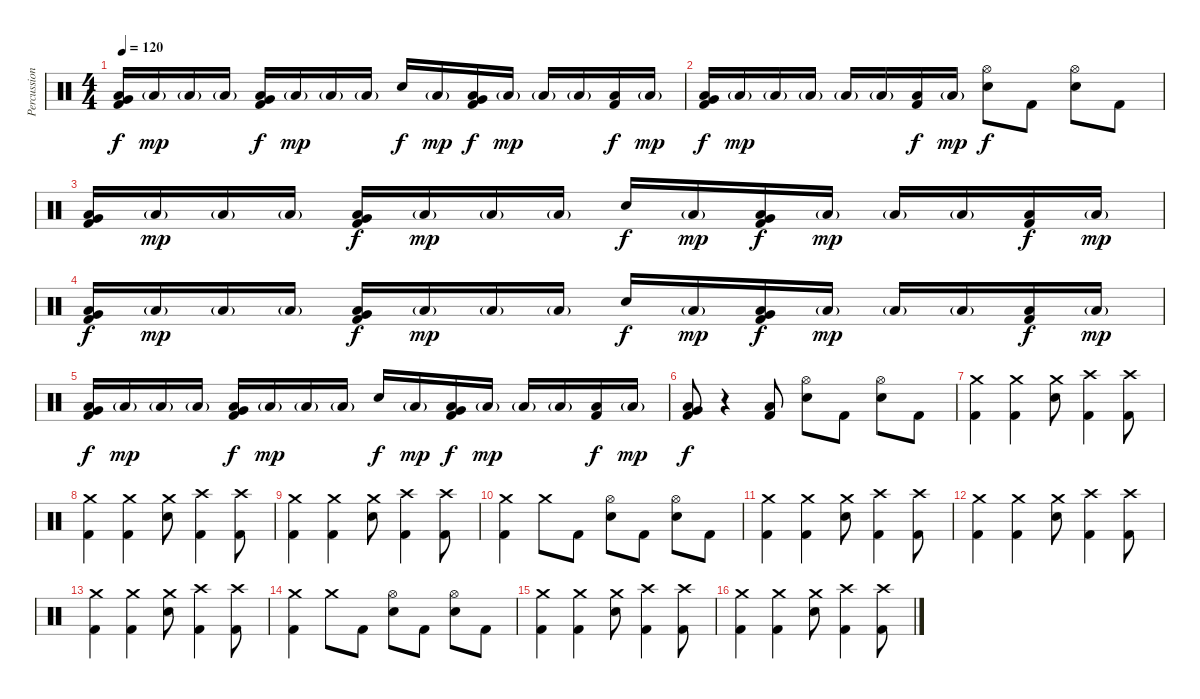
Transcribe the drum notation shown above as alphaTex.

\track ("Percussion" "Percussion") {instrument percussion}
\staff {score}
\articulation defaults
\ts (4 4)
\tempo 120
\clef neutral
\ks c
("Very Low Tom (hit)" "Low Floor Tom (hit)" "Kick (hit) 2").16{dy f} "Low Floor Tom (hit)"{g}.16{dy mp} "Low Floor Tom (hit)"{g}.16 "Low Floor Tom (hit)"{g}.16 ("Very Low Tom (hit)" "Low Floor Tom (hit)" "Kick (hit) 2").16{dy f} "Low Floor Tom (hit)"{g}.16{dy mp} "Low Floor Tom (hit)"{g}.16 "Low Floor Tom (hit)"{g}.16 "Electric Snare (hit)".16{dy f} "Low Floor Tom (hit)"{g}.16{dy mp} ("Very Low Tom (hit)" "Low Floor Tom (hit)" "Kick (hit) 2").16{dy f} "Low Floor Tom (hit)"{g}.16{dy mp} "Low Floor Tom (hit)"{g}.16 "Low Floor Tom (hit)"{g}.16 ("Low Floor Tom (hit)" "Kick (hit) 2").16{dy f} "Low Floor Tom (hit)"{g}.16{dy mp} |
("Very Low Tom (hit)" "Low Floor Tom (hit)" "Kick (hit) 2").16{dy f} "Low Floor Tom (hit)"{g}.16{dy mp} "Low Floor Tom (hit)"{g}.16 "Low Floor Tom (hit)"{g}.16 "Low Floor Tom (hit)"{g}.16 "Low Floor Tom (hit)"{g}.16 ("Low Floor Tom (hit)" "Kick (hit) 2").16{dy f} "Low Floor Tom (hit)"{g}.16{dy mp} ("Hi-Hat (open)" "Electric Snare (hit)").8{dy f} "Kick (hit) 2".8 ("Hi-Hat (open)" "Electric Snare (hit)").8 "Kick (hit) 2".8 |
("Very Low Tom (hit)" "Low Floor Tom (hit)" "Kick (hit) 2").16 "Low Floor Tom (hit)"{g}.16{dy mp} "Low Floor Tom (hit)"{g}.16 "Low Floor Tom (hit)"{g}.16 ("Very Low Tom (hit)" "Low Floor Tom (hit)" "Kick (hit) 2").16{dy f} "Low Floor Tom (hit)"{g}.16{dy mp} "Low Floor Tom (hit)"{g}.16 "Low Floor Tom (hit)"{g}.16 "Electric Snare (hit)".16{dy f} "Low Floor Tom (hit)"{g}.16{dy mp} ("Very Low Tom (hit)" "Low Floor Tom (hit)" "Kick (hit) 2").16{dy f} "Low Floor Tom (hit)"{g}.16{dy mp} "Low Floor Tom (hit)"{g}.16 "Low Floor Tom (hit)"{g}.16 ("Low Floor Tom (hit)" "Kick (hit) 2").16{dy f} "Low Floor Tom (hit)"{g}.16{dy mp} |
("Very Low Tom (hit)" "Low Floor Tom (hit)" "Kick (hit) 2").16{dy f} "Low Floor Tom (hit)"{g}.16{dy mp} "Low Floor Tom (hit)"{g}.16 "Low Floor Tom (hit)"{g}.16 ("Very Low Tom (hit)" "Low Floor Tom (hit)" "Kick (hit) 2").16{dy f} "Low Floor Tom (hit)"{g}.16{dy mp} "Low Floor Tom (hit)"{g}.16 "Low Floor Tom (hit)"{g}.16 "Electric Snare (hit)".16{dy f} "Low Floor Tom (hit)"{g}.16{dy mp} ("Very Low Tom (hit)" "Low Floor Tom (hit)" "Kick (hit) 2").16{dy f} "Low Floor Tom (hit)"{g}.16{dy mp} "Low Floor Tom (hit)"{g}.16 "Low Floor Tom (hit)"{g}.16 ("Low Floor Tom (hit)" "Kick (hit) 2").16{dy f} "Low Floor Tom (hit)"{g}.16{dy mp} |
("Very Low Tom (hit)" "Low Floor Tom (hit)" "Kick (hit) 2").16{dy f} "Low Floor Tom (hit)"{g}.16{dy mp} "Low Floor Tom (hit)"{g}.16 "Low Floor Tom (hit)"{g}.16 ("Very Low Tom (hit)" "Low Floor Tom (hit)" "Kick (hit) 2").16{dy f} "Low Floor Tom (hit)"{g}.16{dy mp} "Low Floor Tom (hit)"{g}.16 "Low Floor Tom (hit)"{g}.16 "Electric Snare (hit)".16{dy f} "Low Floor Tom (hit)"{g}.16{dy mp} ("Very Low Tom (hit)" "Low Floor Tom (hit)" "Kick (hit) 2").16{dy f} "Low Floor Tom (hit)"{g}.16{dy mp} "Low Floor Tom (hit)"{g}.16 "Low Floor Tom (hit)"{g}.16 ("Low Floor Tom (hit)" "Kick (hit) 2").16{dy f} "Low Floor Tom (hit)"{g}.16{dy mp} |
("Very Low Tom (hit)" "Low Floor Tom (hit)" "Kick (hit) 2").8{dy f} r.4 ("Low Floor Tom (hit)" "Kick (hit) 2").8 ("Hi-Hat (open)" "Electric Snare (hit)").8 "Kick (hit) 2".8 ("Hi-Hat (open)" "Electric Snare (hit)").8 "Kick (hit) 2".8 |
("Crash medium (hit)" "Kick (hit) 2").4 ("Crash medium (hit)" "Kick (hit) 2").4 ("Crash medium (hit)" "Electric Snare (hit)").8 ("Crash high (hit)" "Kick (hit) 2").4 ("Crash high (hit)" "Kick (hit) 2").8 |
("Crash medium (hit)" "Kick (hit) 2").4 ("Crash medium (hit)" "Kick (hit) 2").4 ("Crash medium (hit)" "Electric Snare (hit)").8 ("Crash high (hit)" "Kick (hit) 2").4 ("Crash high (hit)" "Kick (hit) 2").8 |
("Crash medium (hit)" "Kick (hit) 2").4 ("Crash medium (hit)" "Kick (hit) 2").4 ("Crash medium (hit)" "Electric Snare (hit)").8 ("Crash high (hit)" "Kick (hit) 2").4 ("Crash high (hit)" "Kick (hit) 2").8 |
("Crash medium (hit)" "Kick (hit) 2").4 "Crash medium (hit)".8 "Kick (hit) 2".8 ("Hi-Hat (open)" "Electric Snare (hit)").8 "Kick (hit) 2".8 ("Hi-Hat (open)" "Electric Snare (hit)").8 "Kick (hit) 2".8 |
("Crash medium (hit)" "Kick (hit) 2").4 ("Crash medium (hit)" "Kick (hit) 2").4 ("Crash medium (hit)" "Electric Snare (hit)").8 ("Crash high (hit)" "Kick (hit) 2").4 ("Crash high (hit)" "Kick (hit) 2").8 |
("Crash medium (hit)" "Kick (hit) 2").4 ("Crash medium (hit)" "Kick (hit) 2").4 ("Crash medium (hit)" "Electric Snare (hit)").8 ("Crash high (hit)" "Kick (hit) 2").4 ("Crash high (hit)" "Kick (hit) 2").8 |
("Crash medium (hit)" "Kick (hit) 2").4 ("Crash medium (hit)" "Kick (hit) 2").4 ("Crash medium (hit)" "Electric Snare (hit)").8 ("Crash high (hit)" "Kick (hit) 2").4 ("Crash high (hit)" "Kick (hit) 2").8 |
("Crash medium (hit)" "Kick (hit) 2").4 "Crash medium (hit)".8 "Kick (hit) 2".8 ("Hi-Hat (open)" "Electric Snare (hit)").8 "Kick (hit) 2".8 ("Hi-Hat (open)" "Electric Snare (hit)").8 "Kick (hit) 2".8 |
("Crash medium (hit)" "Kick (hit) 2").4 ("Crash medium (hit)" "Kick (hit) 2").4 ("Crash medium (hit)" "Electric Snare (hit)").8 ("Crash high (hit)" "Kick (hit) 2").4 ("Crash high (hit)" "Kick (hit) 2").8 |
("Crash medium (hit)" "Kick (hit) 2").4 ("Crash medium (hit)" "Kick (hit) 2").4 ("Crash medium (hit)" "Electric Snare (hit)").8 ("Crash high (hit)" "Kick (hit) 2").4 ("Crash high (hit)" "Kick (hit) 2").8
